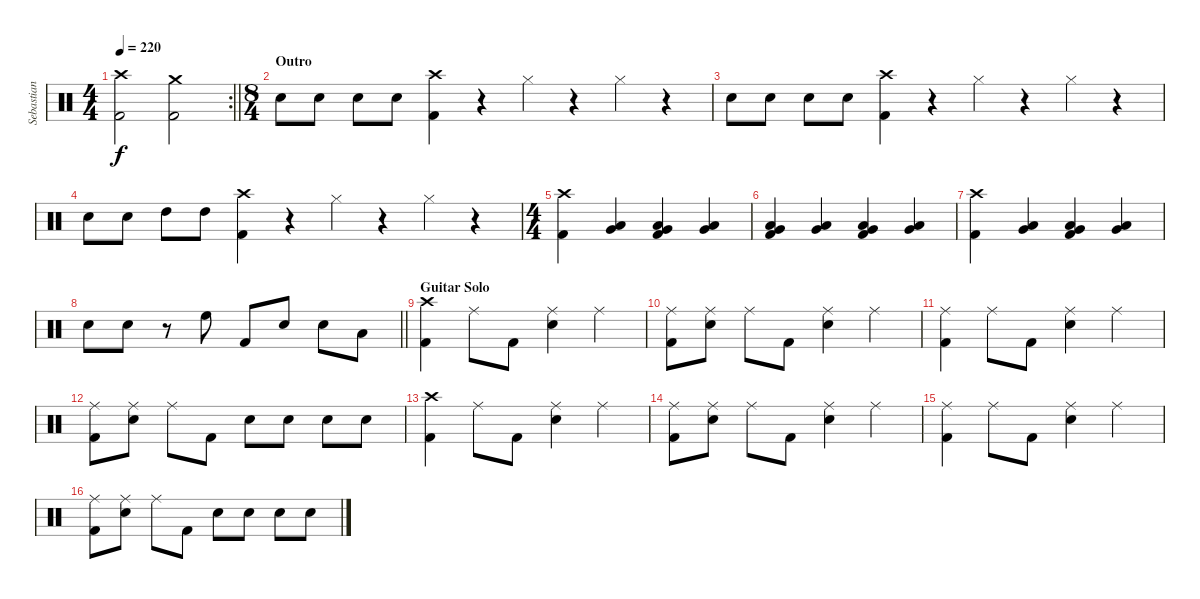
\track ("Sebastian" "Sebastian") {instrument percussion}
\staff {score}
\articulation defaults
\rc 2
\ts (4 4)
\tempo 220
\clef neutral
\barLineRight lightlight
\ks c
("Crash high (hit)" "Kick (hit) 2").2{dy f} ("Crash medium (hit)" "Kick (hit) 2").2 |
\ts (8 4)
\section ("" "Outro")
"Snare (hit) 2".8 "Snare (hit) 2".8 "Snare (hit) 2".8 "Snare (hit) 2".8 ("Crash high (hit)" "Kick (hit) 2").4 r.4 "Hi-Hat (closed)".4 r.4 "Hi-Hat (closed)".4 r.4 |
"Snare (hit) 2".8 "Snare (hit) 2".8 "Snare (hit) 2".8 "Snare (hit) 2".8 ("Crash high (hit)" "Kick (hit) 2").4 r.4 "Hi-Hat (closed)".4 r.4 "Hi-Hat (closed)".4 r.4 |
"Snare (hit) 2".8 "Snare (hit) 2".8 "High Tom (hit)".8 "High Tom (hit)".8 ("Crash high (hit)" "Kick (hit) 2").4 r.4 "Hi-Hat (closed)".4 r.4 "Hi-Hat (closed)".4 r.4 |
\ts (4 4)
("Crash high (hit)" "Kick (hit) 2").4 ("Low Tom (hit)" "Very Low Tom (hit)").4 ("Low Tom (hit)" "Very Low Tom (hit)" "Kick (hit) 2").4 ("Low Tom (hit)" "Very Low Tom (hit)").4 |
("Low Tom (hit)" "Very Low Tom (hit)" "Kick (hit) 2").4 ("Low Tom (hit)" "Very Low Tom (hit)").4 ("Low Tom (hit)" "Very Low Tom (hit)" "Kick (hit) 2").4 ("Low Tom (hit)" "Very Low Tom (hit)").4 |
("Crash high (hit)" "Kick (hit) 2").4 ("Low Tom (hit)" "Very Low Tom (hit)").4 ("Low Tom (hit)" "Very Low Tom (hit)" "Kick (hit) 2").4 ("Low Tom (hit)" "Very Low Tom (hit)").4 |
\barLineRight lightlight "Snare (hit) 2".8 "Snare (hit) 2".8
r.8 "High Floor Tom (hit)".8 "Kick (hit) 2".8 "Snare (hit) 2".8 "Snare (hit) 2".8 "Low Tom (hit)".8 |
\section ("" "Guitar Solo")
("Crash high (hit)" "Kick (hit) 2").4 "Ride (middle)".8 "Kick (hit) 2".8 ("Ride (middle)" "Snare (hit) 2").4 "Ride (middle)".4 |
("Ride (middle)" "Kick (hit) 2").8 ("Ride (middle)" "Snare (hit) 2").8 "Ride (middle)".8 "Kick (hit) 2".8 ("Ride (middle)" "Snare (hit) 2").4 "Ride (middle)".4 |
("Ride (middle)" "Kick (hit) 2").4 "Ride (middle)".8 "Kick (hit) 2".8 ("Ride (middle)" "Snare (hit) 2").4 "Ride (middle)".4 |
("Ride (middle)" "Kick (hit) 2").8 ("Ride (middle)" "Snare (hit) 2").8 "Ride (middle)".8 "Kick (hit) 2".8 "Snare (hit) 2".8 "Snare (hit) 2".8 "Snare (hit) 2".8 "Snare (hit) 2".8 |
("Crash high (hit)" "Kick (hit) 2").4 "Ride (middle)".8 "Kick (hit) 2".8 ("Ride (middle)" "Snare (hit) 2").4 "Ride (middle)".4 |
("Ride (middle)" "Kick (hit) 2").8 ("Ride (middle)" "Snare (hit) 2").8 "Ride (middle)".8 "Kick (hit) 2".8 ("Ride (middle)" "Snare (hit) 2").4 "Ride (middle)".4 |
("Ride (middle)" "Kick (hit) 2").4 "Ride (middle)".8 "Kick (hit) 2".8 ("Ride (middle)" "Snare (hit) 2").4 "Ride (middle)".4 |
("Ride (middle)" "Kick (hit) 2").8 ("Ride (middle)" "Snare (hit) 2").8 "Ride (middle)".8 "Kick (hit) 2".8 "Snare (hit) 2".8 "Snare (hit) 2".8 "Snare (hit) 2".8 "Snare (hit) 2".8
